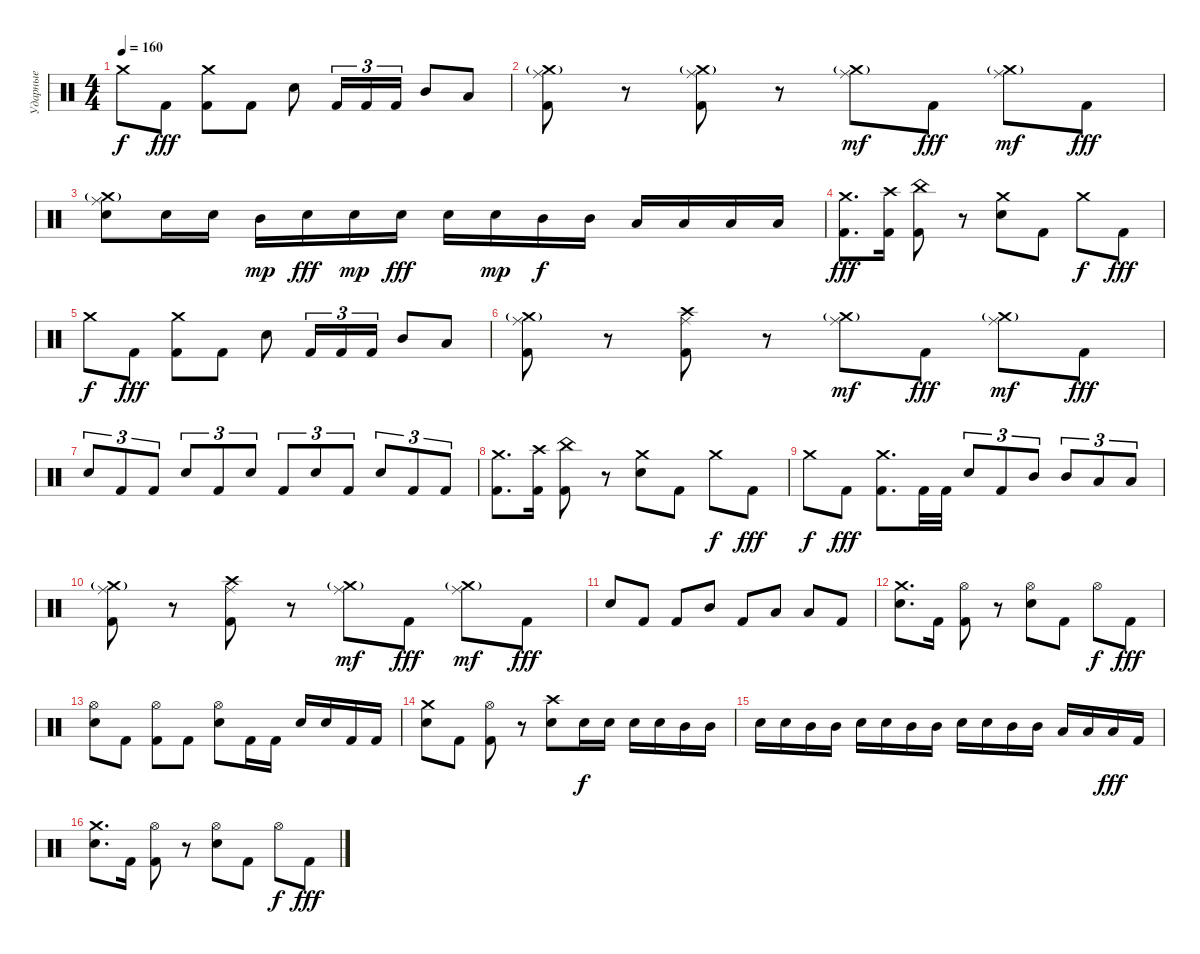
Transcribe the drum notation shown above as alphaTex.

\track ("Ударные" "Ударные") {instrument percussion}
\staff {score}
\articulation defaults
\ts (4 4)
\tempo 160
\clef neutral
\ks c "Crash medium (hit)".8{dy f} "Kick (hit) 2".8{dy fff}
("Crash medium (hit)" "Kick (hit) 2").8 "Kick (hit) 2".8 "Electric Snare (hit)".8 "Kick (hit) 2".16{tu (3 2)} "Kick (hit) 2".16{tu (3 2)} "Kick (hit) 2".16{tu (3 2)} "Mid Tom (hit)".8 "Low Floor Tom (hit)".8 |
("Crash medium (hit)"{g} "Ride (middle)" "Kick (hit) 2").8 r.8 ("Crash medium (hit)"{g} "Ride (middle)" "Kick (hit) 2").8 r.8 ("Crash medium (hit)"{g} "Ride (middle)").8{dy mf} "Kick (hit) 2".8{dy fff} ("Crash medium (hit)"{g} "Ride (middle)").8{dy mf} "Kick (hit) 2".8{dy fff} |
("Crash medium (hit)"{g} "Ride (middle)" "Electric Snare (hit)").8 "Electric Snare (hit)".16 "Electric Snare (hit)".16 "Mid Tom (hit)".16{dy mp} "Electric Snare (hit)".16{dy fff} "Electric Snare (hit)".16{dy mp} "Electric Snare (hit)".16{dy fff} "Electric Snare (hit)".16 "Electric Snare (hit)".16{dy mp} "Mid Tom (hit)".16{dy f} "Mid Tom (hit)".16 "Low Tom (hit)".16 "Low Tom (hit)".16 "Low Floor Tom (hit)".16 "Low Floor Tom (hit)".16 |
("Crash medium (hit)" "Kick (hit) 2").8{d dy fff} ("Crash high (hit)" "Kick (hit) 2").16 ("China (hit)" "Kick (hit) 2").8 r.8 ("Crash medium (hit)" "Electric Snare (hit)").8 "Kick (hit) 2".8 "Crash medium (hit)".8{dy f} "Kick (hit) 2".8{dy fff} |
"Crash medium (hit)".8{dy f} "Kick (hit) 2".8{dy fff} ("Crash medium (hit)" "Kick (hit) 2").8 "Kick (hit) 2".8 "Electric Snare (hit)".8 "Kick (hit) 2".16{tu (3 2)} "Kick (hit) 2".16{tu (3 2)} "Kick (hit) 2".16{tu (3 2)} "Mid Tom (hit)".8 "Low Floor Tom (hit)".8 |
("Crash medium (hit)"{g} "Ride (middle)" "Kick (hit) 2").8 r.8 ("Crash high (hit)" "Ride (middle)" "Kick (hit) 2").8 r.8 ("Crash medium (hit)"{g} "Ride (middle)").8{dy mf} "Kick (hit) 2".8{dy fff} ("Crash medium (hit)"{g} "Ride (middle)").8{dy mf} "Kick (hit) 2".8{dy fff} |
"Electric Snare (hit)".8{tu (3 2)} "Kick (hit) 2".8{tu (3 2)} "Kick (hit) 2".8{tu (3 2)} "Electric Snare (hit)".8{tu (3 2)} "Kick (hit) 2".8{tu (3 2)} "Electric Snare (hit)".8{tu (3 2)} "Kick (hit) 2".8{tu (3 2)} "Electric Snare (hit)".8{tu (3 2)} "Kick (hit) 2".8{tu (3 2)} "Electric Snare (hit)".8{tu (3 2)} "Kick (hit) 2".8{tu (3 2)} "Kick (hit) 2".8{tu (3 2)} |
("Crash medium (hit)" "Kick (hit) 2").8{d} ("Crash high (hit)" "Kick (hit) 2").16 ("China (hit)" "Kick (hit) 2").8 r.8 ("Crash medium (hit)" "Electric Snare (hit)").8 "Kick (hit) 2".8 "Crash medium (hit)".8{dy f} "Kick (hit) 2".8{dy fff} |
"Crash medium (hit)".8{dy f} "Kick (hit) 2".8{dy fff} ("Crash medium (hit)" "Kick (hit) 2").8{d} "Kick (hit) 2".32 "Kick (hit) 2".32 "Electric Snare (hit)".8{tu (3 2)} "Kick (hit) 2".8{tu (3 2)} "Mid Tom (hit)".8{tu (3 2)} "Mid Tom (hit)".8{tu (3 2)} "Low Tom (hit)".8{tu (3 2)} "Low Tom (hit)".8{tu (3 2)} |
("Crash medium (hit)"{g} "Ride (middle)" "Kick (hit) 2").8 r.8 ("Crash high (hit)" "Ride (middle)" "Kick (hit) 2").8 r.8 ("Crash medium (hit)"{g} "Ride (middle)").8{dy mf} "Kick (hit) 2".8{dy fff} ("Crash medium (hit)"{g} "Ride (middle)").8{dy mf} "Kick (hit) 2".8{dy fff} |
"Electric Snare (hit)".8 "Kick (hit) 2".8 "Kick (hit) 2".8 "Mid Tom (hit)".8 "Kick (hit) 2".8 "Low Tom (hit)".8 "Low Floor Tom (hit)".8 "Kick (hit) 2".8 |
("Crash medium (hit)" "Electric Snare (hit)").8{d} "Kick (hit) 2".16 ("Hi-Hat (open)" "Kick (hit) 2").8 r.8 ("Hi-Hat (open)" "Electric Snare (hit)").8 "Kick (hit) 2".8 "Hi-Hat (open)".8{dy f} "Kick (hit) 2".8{dy fff} |
("Hi-Hat (open)" "Electric Snare (hit)").8 "Kick (hit) 2".8 ("Hi-Hat (open)" "Kick (hit) 2").8 "Kick (hit) 2".8 ("Hi-Hat (open)" "Electric Snare (hit)").8 "Kick (hit) 2".16 "Kick (hit) 2".16 "Electric Snare (hit)".16 "Electric Snare (hit)".16 "Kick (hit) 2".16 "Kick (hit) 2".16 |
("Crash medium (hit)" "Electric Snare (hit)").8 "Kick (hit) 2".8 ("Hi-Hat (open)" "Kick (hit) 2").8 r.8 ("Crash high (hit)" "Electric Snare (hit)").8 "Electric Snare (hit)".16{dy f} "Electric Snare (hit)".16 "Electric Snare (hit)".16 "Electric Snare (hit)".16 "Mid Tom (hit)".16 "Mid Tom (hit)".16 |
"Electric Snare (hit)".16 "Electric Snare (hit)".16 "Mid Tom (hit)".16 "Mid Tom (hit)".16 "Electric Snare (hit)".16 "Electric Snare (hit)".16 "Mid Tom (hit)".16 "Mid Tom (hit)".16 "Electric Snare (hit)".16 "Electric Snare (hit)".16 "Mid Tom (hit)".16 "Mid Tom (hit)".16 "Low Tom (hit)".16 "Low Tom (hit)".16 "Low Floor Tom (hit)".16{dy fff} "Kick (hit) 2".16 |
("Crash medium (hit)" "Electric Snare (hit)").8{d} "Kick (hit) 2".16 ("Hi-Hat (open)" "Kick (hit) 2").8 r.8 ("Hi-Hat (open)" "Electric Snare (hit)").8 "Kick (hit) 2".8 "Hi-Hat (open)".8{dy f} "Kick (hit) 2".8{dy fff}
